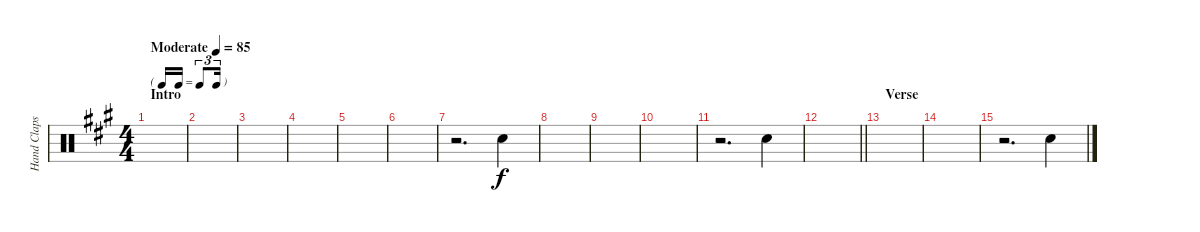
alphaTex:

\track ("Hand Claps" "Hand Claps") {instrument percussion}
\staff {score}
\articulation defaults
\ts (4 4)
\tf triplet16th
\section ("" "Intro")
\tempo (85 "Moderate")
\clef neutral
\ks a
|
|
|
|
|
|
r.2{d} "Hand Clap (hit)".4 |
|
|
|
r.2{d} "Hand Clap (hit)".4 |
\barLineRight lightlight
|
\section ("" "Verse")
|
|
r.2{d} "Hand Clap (hit)".4
